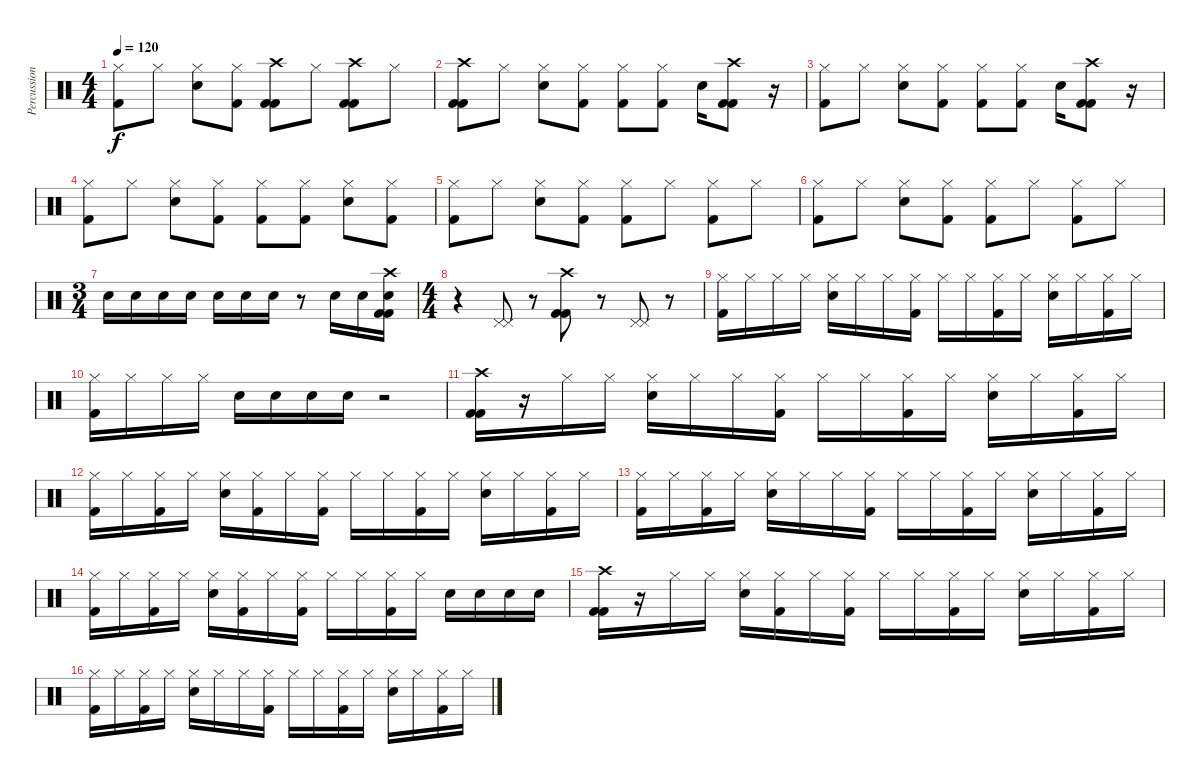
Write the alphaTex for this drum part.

\track ("Percussion" "Percussion") {instrument percussion}
\staff {score}
\articulation defaults
\ts (4 4)
\tempo 120
\clef neutral
\ks c
("Hi-Hat (closed)" "Kick (hit) 2").8{dy f} "Hi-Hat (closed)".8 ("Hi-Hat (closed)" "Snare (hit) 2").8 ("Hi-Hat (closed)" "Kick (hit) 2").8 ("Crash high (hit)" "Kick (hit) 2" "Kick (hit) 2").8 "Hi-Hat (closed)".8 ("Crash high (hit)" "Kick (hit) 2" "Kick (hit) 2").8 "Hi-Hat (closed)".8 |
("Crash high (hit)" "Kick (hit) 2" "Kick (hit) 2").8 "Hi-Hat (closed)".8 ("Hi-Hat (closed)" "Snare (hit) 2").8 ("Hi-Hat (closed)" "Kick (hit) 2").8 ("Hi-Hat (closed)" "Kick (hit) 2").8 ("Hi-Hat (closed)" "Kick (hit) 2").8 "Snare (hit) 2".16 ("Crash high (hit)" "Kick (hit) 2" "Kick (hit) 2").8 r.16 |
("Hi-Hat (closed)" "Kick (hit) 2").8 "Hi-Hat (closed)".8 ("Hi-Hat (closed)" "Snare (hit) 2").8 ("Hi-Hat (closed)" "Kick (hit) 2").8 ("Hi-Hat (closed)" "Kick (hit) 2").8 ("Hi-Hat (closed)" "Kick (hit) 2").8 "Snare (hit) 2".16 ("Crash high (hit)" "Kick (hit) 2" "Kick (hit) 2").8 r.16 |
("Hi-Hat (closed)" "Kick (hit) 2").8 "Hi-Hat (closed)".8 ("Hi-Hat (closed)" "Snare (hit) 2").8 ("Hi-Hat (closed)" "Kick (hit) 2").8 ("Hi-Hat (closed)" "Kick (hit) 2").8 ("Hi-Hat (closed)" "Kick (hit) 2").8 ("Hi-Hat (closed)" "Snare (hit) 2").8 ("Hi-Hat (closed)" "Kick (hit) 2").8 |
("Hi-Hat (closed)" "Kick (hit) 2").8 "Hi-Hat (closed)".8 ("Hi-Hat (closed)" "Snare (hit) 2").8 ("Hi-Hat (closed)" "Kick (hit) 2").8 ("Hi-Hat (closed)" "Kick (hit) 2").8 "Hi-Hat (closed)".8 ("Hi-Hat (closed)" "Kick (hit) 2").8 "Hi-Hat (closed)".8 |
("Hi-Hat (closed)" "Kick (hit) 2").8 "Hi-Hat (closed)".8 ("Hi-Hat (closed)" "Snare (hit) 2").8 ("Hi-Hat (closed)" "Kick (hit) 2").8 ("Hi-Hat (closed)" "Kick (hit) 2").8 "Hi-Hat (closed)".8 ("Hi-Hat (closed)" "Kick (hit) 2").8 "Hi-Hat (closed)".8 |
\ts (3 4)
"Snare (hit) 2".16 "Snare (hit) 2".16 "Snare (hit) 2".16 "Snare (hit) 2".16 "Snare (hit) 2".16 "Snare (hit) 2".16 "Snare (hit) 2".16 r.8 "Snare (hit) 2".16 "Snare (hit) 2".16 ("Crash high (hit)" "Snare (hit) 2" "Kick (hit) 2" "Kick (hit) 2").16 |
\ts (4 4)
r.4 ("Pedal Hi-Hat (hit)" "Pedal Hi-Hat (hit)").8 r.8 ("Crash high (hit)" "Kick (hit) 2" "Kick (hit) 2").8 r.8 ("Pedal Hi-Hat (hit)" "Pedal Hi-Hat (hit)").8 r.8 |
("Hi-Hat (closed)" "Kick (hit) 2").16 "Hi-Hat (closed)".16 "Hi-Hat (closed)".16 "Hi-Hat (closed)".16 ("Hi-Hat (closed)" "Snare (hit) 2").16 "Hi-Hat (closed)".16 "Hi-Hat (closed)".16 ("Hi-Hat (closed)" "Kick (hit) 2").16 "Hi-Hat (closed)".16 "Hi-Hat (closed)".16 ("Hi-Hat (closed)" "Kick (hit) 2").16 "Hi-Hat (closed)".16 ("Hi-Hat (closed)" "Snare (hit) 2").16 "Hi-Hat (closed)".16 ("Hi-Hat (closed)" "Kick (hit) 2").16 "Hi-Hat (closed)".16 |
("Hi-Hat (closed)" "Kick (hit) 2").16 "Hi-Hat (closed)".16 "Hi-Hat (closed)".16 "Hi-Hat (closed)".16 "Snare (hit) 2".16 "Snare (hit) 2".16 "Snare (hit) 2".16 "Snare (hit) 2".16 r.2 |
("Crash high (hit)" "Kick (hit) 2" "Kick (hit) 2").16 r.16 "Hi-Hat (closed)".16 "Hi-Hat (closed)".16 ("Hi-Hat (closed)" "Snare (hit) 2").16 "Hi-Hat (closed)".16 "Hi-Hat (closed)".16 ("Hi-Hat (closed)" "Kick (hit) 2").16 "Hi-Hat (closed)".16 "Hi-Hat (closed)".16 ("Hi-Hat (closed)" "Kick (hit) 2").16 "Hi-Hat (closed)".16 ("Hi-Hat (closed)" "Snare (hit) 2").16 "Hi-Hat (closed)".16 ("Hi-Hat (closed)" "Kick (hit) 2").16 "Hi-Hat (closed)".16 |
("Hi-Hat (closed)" "Kick (hit) 2").16 "Hi-Hat (closed)".16 ("Hi-Hat (closed)" "Kick (hit) 2").16 "Hi-Hat (closed)".16 ("Hi-Hat (closed)" "Snare (hit) 2").16 ("Hi-Hat (closed)" "Kick (hit) 2").16 "Hi-Hat (closed)".16 ("Hi-Hat (closed)" "Kick (hit) 2").16 "Hi-Hat (closed)".16 "Hi-Hat (closed)".16 ("Hi-Hat (closed)" "Kick (hit) 2").16 "Hi-Hat (closed)".16 ("Hi-Hat (closed)" "Snare (hit) 2").16 "Hi-Hat (closed)".16 ("Hi-Hat (closed)" "Kick (hit) 2").16 "Hi-Hat (closed)".16 |
("Hi-Hat (closed)" "Kick (hit) 2").16 "Hi-Hat (closed)".16 ("Hi-Hat (closed)" "Kick (hit) 2").16 "Hi-Hat (closed)".16 ("Hi-Hat (closed)" "Snare (hit) 2").16 "Hi-Hat (closed)".16 "Hi-Hat (closed)".16 ("Hi-Hat (closed)" "Kick (hit) 2").16 "Hi-Hat (closed)".16 "Hi-Hat (closed)".16 ("Hi-Hat (closed)" "Kick (hit) 2").16 "Hi-Hat (closed)".16 ("Hi-Hat (closed)" "Snare (hit) 2").16 "Hi-Hat (closed)".16 ("Hi-Hat (closed)" "Kick (hit) 2").16 "Hi-Hat (closed)".16 |
("Hi-Hat (closed)" "Kick (hit) 2").16 "Hi-Hat (closed)".16 ("Hi-Hat (closed)" "Kick (hit) 2").16 "Hi-Hat (closed)".16 ("Hi-Hat (closed)" "Snare (hit) 2").16 ("Hi-Hat (closed)" "Kick (hit) 2").16 "Hi-Hat (closed)".16 ("Hi-Hat (closed)" "Kick (hit) 2").16 "Hi-Hat (closed)".16 "Hi-Hat (closed)".16 ("Hi-Hat (closed)" "Kick (hit) 2").16 "Hi-Hat (closed)".16 "Snare (hit) 2".16 "Snare (hit) 2".16 "Snare (hit) 2".16 "Snare (hit) 2".16 |
("Crash high (hit)" "Kick (hit) 2" "Kick (hit) 2").16 r.16 "Hi-Hat (closed)".16 "Hi-Hat (closed)".16 ("Hi-Hat (closed)" "Snare (hit) 2").16 ("Hi-Hat (closed)" "Kick (hit) 2").16 "Hi-Hat (closed)".16 ("Hi-Hat (closed)" "Kick (hit) 2").16 "Hi-Hat (closed)".16 "Hi-Hat (closed)".16 ("Hi-Hat (closed)" "Kick (hit) 2").16 "Hi-Hat (closed)".16 ("Hi-Hat (closed)" "Snare (hit) 2").16 "Hi-Hat (closed)".16 ("Hi-Hat (closed)" "Kick (hit) 2").16 "Hi-Hat (closed)".16 |
("Hi-Hat (closed)" "Kick (hit) 2").16 "Hi-Hat (closed)".16 ("Hi-Hat (closed)" "Kick (hit) 2").16 "Hi-Hat (closed)".16 ("Hi-Hat (closed)" "Snare (hit) 2").16 "Hi-Hat (closed)".16 "Hi-Hat (closed)".16 ("Hi-Hat (closed)" "Kick (hit) 2").16 "Hi-Hat (closed)".16 "Hi-Hat (closed)".16 ("Hi-Hat (closed)" "Kick (hit) 2").16 "Hi-Hat (closed)".16 ("Hi-Hat (closed)" "Snare (hit) 2").16 "Hi-Hat (closed)".16 ("Hi-Hat (closed)" "Kick (hit) 2").16 "Hi-Hat (closed)".16
